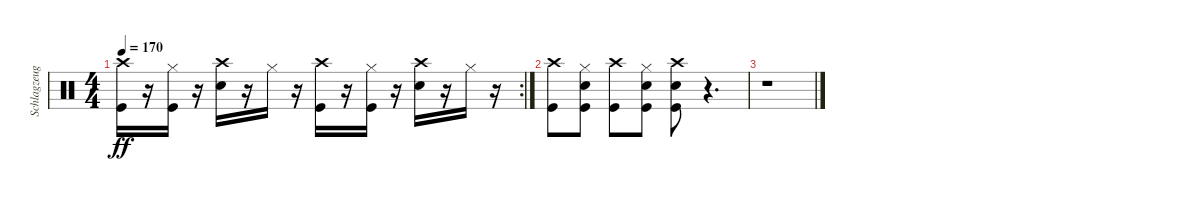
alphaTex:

\track ("Schlagzeug" "Schlagzeug") {instrument percussion}
\staff {score}
\articulation defaults
\rc 2
\ts (4 4)
\tempo 170
\clef neutral
\ks c
("Crash high (hit)" "Kick (hit)").16{dy ff} r.16 ("Hi-Hat (closed)" "Kick (hit)").16 r.16 ("Crash high (hit)" "Snare (hit) 2").16 r.16 "Hi-Hat (closed)".16 r.16 ("Crash high (hit)" "Kick (hit)").16 r.16 ("Hi-Hat (closed)" "Kick (hit)").16 r.16 ("Crash high (hit)" "Snare (hit) 2").16 r.16 "Hi-Hat (closed)".16 r.16 |
("Crash high (hit)" "Kick (hit)").8 ("Hi-Hat (closed)" "Snare (hit) 2" "Kick (hit)").8 ("Crash high (hit)" "Kick (hit)").8 ("Hi-Hat (closed)" "Snare (hit) 2" "Kick (hit)").8 ("Crash high (hit)" "Snare (hit) 2" "Kick (hit)").8 r.4{d} |
r.1{volume 0}
